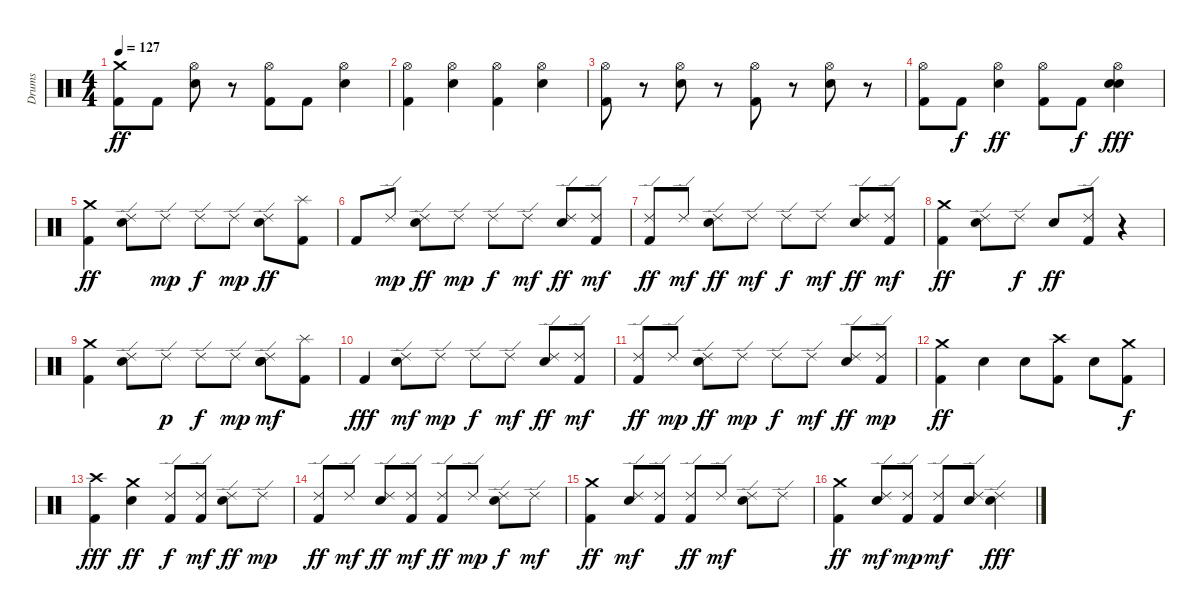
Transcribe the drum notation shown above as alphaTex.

\track ("Drums" "Drums") {instrument percussion}
\staff {score}
\articulation defaults
\ts (4 4)
\tempo 127
\clef neutral
\ks c
("Crash medium (hit)" "Kick (hit) 2").8{dy ff} "Kick (hit) 2".8 ("Electric Snare (hit)" "Hi-Hat (open)").8 r.8 ("Hi-Hat (open)" "Kick (hit) 2").8 "Kick (hit) 2".8 ("Hi-Hat (open)" "Electric Snare (hit)").4 |
("Kick (hit) 2" "Hi-Hat (open)").4 ("Hi-Hat (open)" "Electric Snare (hit)").4 ("Hi-Hat (open)" "Kick (hit) 2").4 ("Hi-Hat (open)" "Electric Snare (hit)").4 |
("Hi-Hat (open)" "Kick (hit) 2").8 r.8 ("Hi-Hat (open)" "Electric Snare (hit)").8 r.8 ("Hi-Hat (open)" "Kick (hit) 2").8 r.8 ("Hi-Hat (open)" "Electric Snare (hit)").8 r.8 |
("Kick (hit) 2" "Hi-Hat (open)").8 "Kick (hit) 2".8{dy f} ("Electric Snare (hit)" "Hi-Hat (open)").4{dy ff} ("Kick (hit) 2" "Hi-Hat (open)").8 "Kick (hit) 2".8{dy f} ("Hi-Hat (open)" "Electric Snare (hit)" "Electric Snare (hit)").4{dy fff} |
("Kick (hit) 2" "Crash medium (hit)").4{dy ff} ("Ride (edge) 2" "Electric Snare (hit)").8 "Ride (edge) 2".8{dy mp} "Ride (edge) 2".8{dy f} "Ride (edge) 2".8{dy mp} ("Electric Snare (hit)" "Ride (edge) 2").8{dy ff} ("Splash (hit)" "Kick (hit) 2").8 |
"Kick (hit) 2".8 "Ride (edge) 2".8{dy mp} ("Electric Snare (hit)" "Ride (edge) 2").8{dy ff} "Ride (edge) 2".8{dy mp} "Ride (edge) 2".8{dy f} "Ride (edge) 2".8{dy mf} ("Ride (edge) 2" "Electric Snare (hit)").8{dy ff} ("Ride (edge) 2" "Kick (hit) 2").8{dy mf} |
("Kick (hit) 2" "Ride (edge) 2").8{dy ff} "Ride (edge) 2".8{dy mf} ("Electric Snare (hit)" "Ride (edge) 2").8{dy ff} "Ride (edge) 2".8{dy mf} "Ride (edge) 2".8{dy f} "Ride (edge) 2".8{dy mf} ("Electric Snare (hit)" "Ride (edge) 2").8{dy ff} ("Ride (edge) 2" "Kick (hit) 2").8{dy mf} |
("Crash medium (hit)" "Kick (hit) 2").4{dy ff} ("Ride (edge) 2" "Electric Snare (hit)").8 "Ride (edge) 2".8{dy f} "Electric Snare (hit)".8{dy ff} ("Kick (hit) 2" "Ride (edge) 2").8 r.4 |
("Kick (hit) 2" "Crash medium (hit)").4 ("Ride (edge) 2" "Electric Snare (hit)").8 "Ride (edge) 2".8{dy p} "Ride (edge) 2".8{dy f} "Ride (edge) 2".8{dy mp} ("Electric Snare (hit)" "Electric Snare (hit)" "Ride (edge) 2").8{dy mf} ("Kick (hit) 2" "Splash (hit)").8 |
"Kick (hit) 2".4{dy fff} ("Electric Snare (hit)" "Ride (edge) 2").8{dy mf} "Ride (edge) 2".8{dy mp} "Ride (edge) 2".8{dy f} "Ride (edge) 2".8{dy mf} ("Ride (edge) 2" "Electric Snare (hit)").8{dy ff} ("Kick (hit) 2" "Ride (edge) 2").8{dy mf} |
("Kick (hit) 2" "Ride (edge) 2").8{dy ff} "Ride (edge) 2".8{dy mp} ("Electric Snare (hit)" "Ride (edge) 2").8{dy ff} "Ride (edge) 2".8{dy mp} "Ride (edge) 2".8{dy f} "Ride (edge) 2".8{dy mf} ("Ride (edge) 2" "Electric Snare (hit)").8{dy ff} ("Ride (edge) 2" "Kick (hit) 2").8{dy mp} |
("Kick (hit) 2" "Crash medium (hit)").4{dy ff} "Electric Snare (hit)".4 "Electric Snare (hit)".8 ("Kick (hit) 2" "Crash high (hit)").8 "Electric Snare (hit)".8 ("Kick (hit) 2" "Crash medium (hit)").8{dy f} |
("Kick (hit) 2" "Crash high (hit)").4{dy fff} ("Crash medium (hit)" "Electric Snare (hit)").4{dy ff} ("Ride (edge) 2" "Kick (hit) 2").8{dy f} ("Ride (edge) 2" "Kick (hit) 2").8{dy mf} ("Ride (edge) 2" "Electric Snare (hit)").8{dy ff} "Ride (edge) 2".8{dy mp} |
("Kick (hit) 2" "Ride (edge) 2").8{dy ff} "Ride (edge) 2".8{dy mf} ("Electric Snare (hit)" "Ride (edge) 2").8{dy ff} ("Kick (hit) 2" "Ride (edge) 2").8{dy mf} ("Kick (hit) 2" "Ride (edge) 2").8{dy ff} "Ride (edge) 2".8{dy mp} ("Electric Snare (hit)" "Ride (edge) 2").8{dy f} "Ride (edge) 2".8{dy mf} |
("Kick (hit) 2" "Crash medium (hit)").4{dy ff} ("Electric Snare (hit)" "Ride (edge) 2").8{dy mf} ("Kick (hit) 2" "Ride (edge) 2").8 ("Ride (edge) 2" "Kick (hit) 2").8{dy ff} "Ride (edge) 2".8{dy mf} ("Electric Snare (hit)" "Ride (edge) 2").8 "Ride (edge) 2".8 |
("Kick (hit) 2" "Crash medium (hit)").4{dy ff} ("Electric Snare (hit)" "Ride (edge) 2").8{dy mf} ("Kick (hit) 2" "Ride (edge) 2").8{dy mp} ("Kick (hit) 2" "Ride (edge) 2").8{dy mf} ("Electric Snare (hit)" "Ride (edge) 2").8 ("Electric Snare (hit)" "Ride (edge) 2").4{dy fff}
